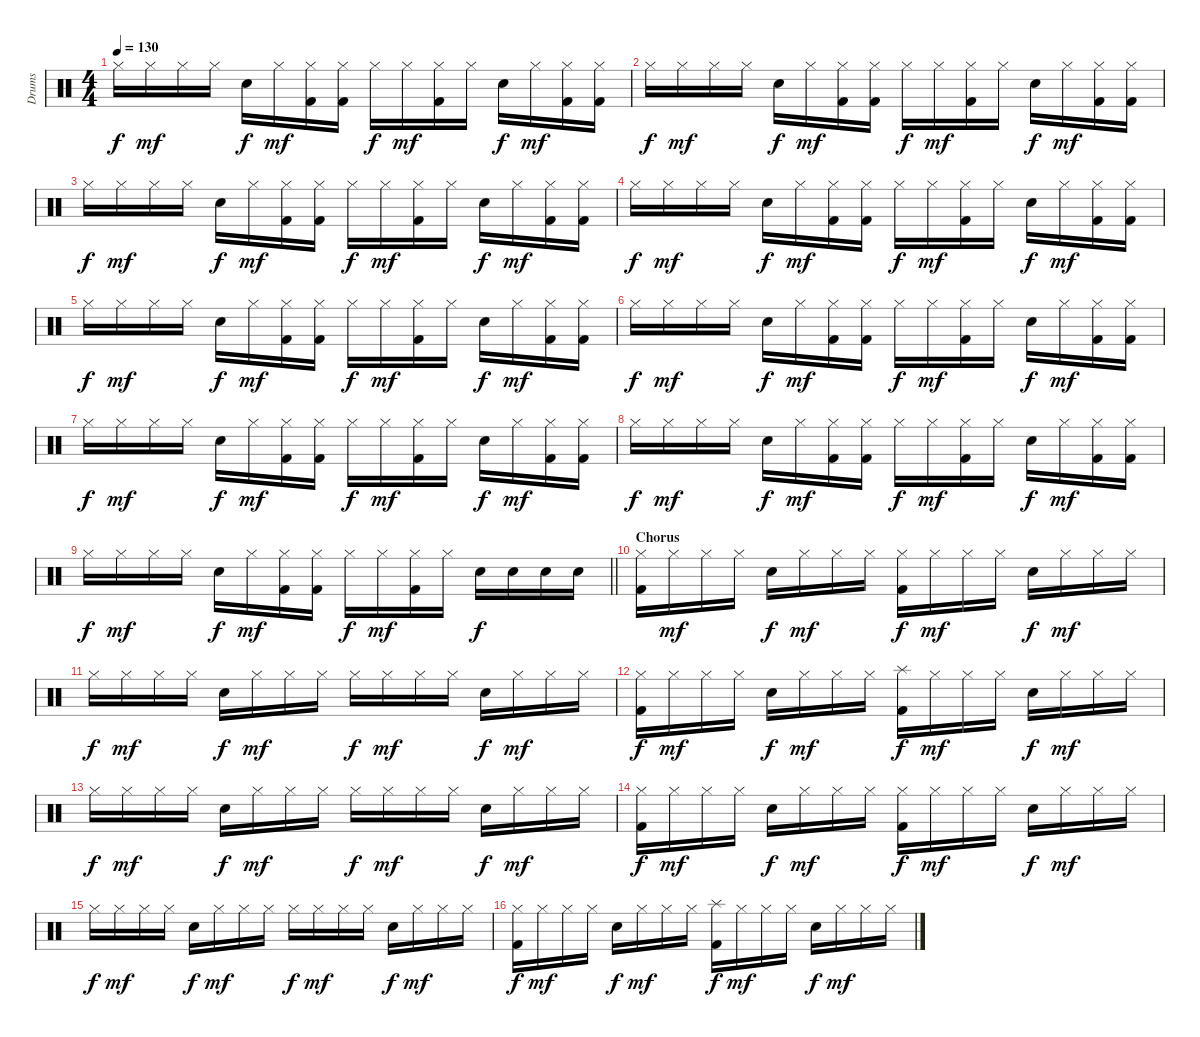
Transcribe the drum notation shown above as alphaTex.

\track ("Drums" "Drums") {instrument percussion}
\staff {score}
\articulation defaults
\ts (4 4)
\tempo 130
\clef neutral
\ks c "Hi-Hat (closed)".16{dy f} "Hi-Hat (closed)".16{dy mf} "Hi-Hat (closed)".16 "Hi-Hat (closed)".16 "Snare (hit) 2".16{dy f} "Hi-Hat (closed)".16{dy mf}
("Hi-Hat (closed)" "Kick (hit) 2").16 ("Hi-Hat (closed)" "Kick (hit) 2").16 "Hi-Hat (closed)".16{dy f} "Hi-Hat (closed)".16{dy mf} ("Hi-Hat (closed)" "Kick (hit) 2").16 "Hi-Hat (closed)".16 "Snare (hit) 2".16{dy f} "Hi-Hat (closed)".16{dy mf} ("Hi-Hat (closed)" "Kick (hit) 2").16 ("Hi-Hat (closed)" "Kick (hit) 2").16 |
"Hi-Hat (closed)".16{dy f} "Hi-Hat (closed)".16{dy mf} "Hi-Hat (closed)".16 "Hi-Hat (closed)".16 "Snare (hit) 2".16{dy f} "Hi-Hat (closed)".16{dy mf} ("Hi-Hat (closed)" "Kick (hit) 2").16 ("Hi-Hat (closed)" "Kick (hit) 2").16 "Hi-Hat (closed)".16{dy f} "Hi-Hat (closed)".16{dy mf} ("Hi-Hat (closed)" "Kick (hit) 2").16 "Hi-Hat (closed)".16 "Snare (hit) 2".16{dy f} "Hi-Hat (closed)".16{dy mf} ("Hi-Hat (closed)" "Kick (hit) 2").16 ("Hi-Hat (closed)" "Kick (hit) 2").16 |
"Hi-Hat (closed)".16{dy f} "Hi-Hat (closed)".16{dy mf} "Hi-Hat (closed)".16 "Hi-Hat (closed)".16 "Snare (hit) 2".16{dy f} "Hi-Hat (closed)".16{dy mf} ("Hi-Hat (closed)" "Kick (hit) 2").16 ("Hi-Hat (closed)" "Kick (hit) 2").16 "Hi-Hat (closed)".16{dy f} "Hi-Hat (closed)".16{dy mf} ("Hi-Hat (closed)" "Kick (hit) 2").16 "Hi-Hat (closed)".16 "Snare (hit) 2".16{dy f} "Hi-Hat (closed)".16{dy mf} ("Hi-Hat (closed)" "Kick (hit) 2").16 ("Hi-Hat (closed)" "Kick (hit) 2").16 |
"Hi-Hat (closed)".16{dy f} "Hi-Hat (closed)".16{dy mf} "Hi-Hat (closed)".16 "Hi-Hat (closed)".16 "Snare (hit) 2".16{dy f} "Hi-Hat (closed)".16{dy mf} ("Hi-Hat (closed)" "Kick (hit) 2").16 ("Hi-Hat (closed)" "Kick (hit) 2").16 "Hi-Hat (closed)".16{dy f} "Hi-Hat (closed)".16{dy mf} ("Hi-Hat (closed)" "Kick (hit) 2").16 "Hi-Hat (closed)".16 "Snare (hit) 2".16{dy f} "Hi-Hat (closed)".16{dy mf} ("Hi-Hat (closed)" "Kick (hit) 2").16 ("Hi-Hat (closed)" "Kick (hit) 2").16 |
"Hi-Hat (closed)".16{dy f} "Hi-Hat (closed)".16{dy mf} "Hi-Hat (closed)".16 "Hi-Hat (closed)".16 "Snare (hit) 2".16{dy f} "Hi-Hat (closed)".16{dy mf} ("Hi-Hat (closed)" "Kick (hit) 2").16 ("Hi-Hat (closed)" "Kick (hit) 2").16 "Hi-Hat (closed)".16{dy f} "Hi-Hat (closed)".16{dy mf} ("Hi-Hat (closed)" "Kick (hit) 2").16 "Hi-Hat (closed)".16 "Snare (hit) 2".16{dy f} "Hi-Hat (closed)".16{dy mf} ("Hi-Hat (closed)" "Kick (hit) 2").16 ("Hi-Hat (closed)" "Kick (hit) 2").16 |
"Hi-Hat (closed)".16{dy f} "Hi-Hat (closed)".16{dy mf} "Hi-Hat (closed)".16 "Hi-Hat (closed)".16 "Snare (hit) 2".16{dy f} "Hi-Hat (closed)".16{dy mf} ("Hi-Hat (closed)" "Kick (hit) 2").16 ("Hi-Hat (closed)" "Kick (hit) 2").16 "Hi-Hat (closed)".16{dy f} "Hi-Hat (closed)".16{dy mf} ("Hi-Hat (closed)" "Kick (hit) 2").16 "Hi-Hat (closed)".16 "Snare (hit) 2".16{dy f} "Hi-Hat (closed)".16{dy mf} ("Hi-Hat (closed)" "Kick (hit) 2").16 ("Hi-Hat (closed)" "Kick (hit) 2").16 |
"Hi-Hat (closed)".16{dy f} "Hi-Hat (closed)".16{dy mf} "Hi-Hat (closed)".16 "Hi-Hat (closed)".16 "Snare (hit) 2".16{dy f} "Hi-Hat (closed)".16{dy mf} ("Hi-Hat (closed)" "Kick (hit) 2").16 ("Hi-Hat (closed)" "Kick (hit) 2").16 "Hi-Hat (closed)".16{dy f} "Hi-Hat (closed)".16{dy mf} ("Hi-Hat (closed)" "Kick (hit) 2").16 "Hi-Hat (closed)".16 "Snare (hit) 2".16{dy f} "Hi-Hat (closed)".16{dy mf} ("Hi-Hat (closed)" "Kick (hit) 2").16 ("Hi-Hat (closed)" "Kick (hit) 2").16 |
"Hi-Hat (closed)".16{dy f} "Hi-Hat (closed)".16{dy mf} "Hi-Hat (closed)".16 "Hi-Hat (closed)".16 "Snare (hit) 2".16{dy f} "Hi-Hat (closed)".16{dy mf} ("Hi-Hat (closed)" "Kick (hit) 2").16 ("Hi-Hat (closed)" "Kick (hit) 2").16 "Hi-Hat (closed)".16{dy f} "Hi-Hat (closed)".16{dy mf} ("Hi-Hat (closed)" "Kick (hit) 2").16 "Hi-Hat (closed)".16 "Snare (hit) 2".16{dy f} "Hi-Hat (closed)".16{dy mf} ("Hi-Hat (closed)" "Kick (hit) 2").16 ("Hi-Hat (closed)" "Kick (hit) 2").16 |
\barLineRight lightlight "Hi-Hat (closed)".16{dy f} "Hi-Hat (closed)".16{dy mf} "Hi-Hat (closed)".16 "Hi-Hat (closed)".16 "Snare (hit) 2".16{dy f} "Hi-Hat (closed)".16{dy mf}
("Hi-Hat (closed)" "Kick (hit) 2").16 ("Hi-Hat (closed)" "Kick (hit) 2").16 "Hi-Hat (closed)".16{dy f} "Hi-Hat (closed)".16{dy mf} ("Hi-Hat (closed)" "Kick (hit) 2").16 "Hi-Hat (closed)".16 "Snare (hit) 2".16{dy f} "Snare (hit) 2".16 "Snare (hit) 2".16 "Snare (hit) 2".16 |
\section ("" "Chorus")
("Hi-Hat (closed)" "Kick (hit) 2").16 "Hi-Hat (closed)".16{dy mf} "Hi-Hat (closed)".16 "Hi-Hat (closed)".16 "Snare (hit) 2".16{dy f} "Hi-Hat (closed)".16{dy mf} "Hi-Hat (closed)".16 "Hi-Hat (closed)".16 ("Hi-Hat (closed)" "Kick (hit) 2").16{dy f} "Hi-Hat (closed)".16{dy mf} "Hi-Hat (closed)".16 "Hi-Hat (closed)".16 "Snare (hit) 2".16{dy f} "Hi-Hat (closed)".16{dy mf} "Hi-Hat (closed)".16 "Hi-Hat (closed)".16 |
"Hi-Hat (closed)".16{dy f} "Hi-Hat (closed)".16{dy mf} "Hi-Hat (closed)".16 "Hi-Hat (closed)".16 "Snare (hit) 2".16{dy f} "Hi-Hat (closed)".16{dy mf} "Hi-Hat (closed)".16 "Hi-Hat (closed)".16 "Hi-Hat (closed)".16{dy f} "Hi-Hat (closed)".16{dy mf} "Hi-Hat (closed)".16 "Hi-Hat (closed)".16 "Snare (hit) 2".16{dy f} "Hi-Hat (closed)".16{dy mf} "Hi-Hat (closed)".16 "Hi-Hat (closed)".16 |
("Hi-Hat (closed)" "Kick (hit) 2").16{dy f} "Hi-Hat (closed)".16{dy mf} "Hi-Hat (closed)".16 "Hi-Hat (closed)".16 "Snare (hit) 2".16{dy f} "Hi-Hat (closed)".16{dy mf} "Hi-Hat (closed)".16 "Hi-Hat (closed)".16 ("Splash (hit)" "Kick (hit) 2").16{dy f} "Hi-Hat (closed)".16{dy mf} "Hi-Hat (closed)".16 "Hi-Hat (closed)".16 "Snare (hit) 2".16{dy f} "Hi-Hat (closed)".16{dy mf} "Hi-Hat (closed)".16 "Hi-Hat (closed)".16 |
"Hi-Hat (closed)".16{dy f} "Hi-Hat (closed)".16{dy mf} "Hi-Hat (closed)".16 "Hi-Hat (closed)".16 "Snare (hit) 2".16{dy f} "Hi-Hat (closed)".16{dy mf} "Hi-Hat (closed)".16 "Hi-Hat (closed)".16 "Hi-Hat (closed)".16{dy f} "Hi-Hat (closed)".16{dy mf} "Hi-Hat (closed)".16 "Hi-Hat (closed)".16 "Snare (hit) 2".16{dy f} "Hi-Hat (closed)".16{dy mf} "Hi-Hat (closed)".16 "Hi-Hat (closed)".16 |
("Hi-Hat (closed)" "Kick (hit) 2").16{dy f} "Hi-Hat (closed)".16{dy mf} "Hi-Hat (closed)".16 "Hi-Hat (closed)".16 "Snare (hit) 2".16{dy f} "Hi-Hat (closed)".16{dy mf} "Hi-Hat (closed)".16 "Hi-Hat (closed)".16 ("Hi-Hat (closed)" "Kick (hit) 2").16{dy f} "Hi-Hat (closed)".16{dy mf} "Hi-Hat (closed)".16 "Hi-Hat (closed)".16 "Snare (hit) 2".16{dy f} "Hi-Hat (closed)".16{dy mf} "Hi-Hat (closed)".16 "Hi-Hat (closed)".16 |
"Hi-Hat (closed)".16{dy f} "Hi-Hat (closed)".16{dy mf} "Hi-Hat (closed)".16 "Hi-Hat (closed)".16 "Snare (hit) 2".16{dy f} "Hi-Hat (closed)".16{dy mf} "Hi-Hat (closed)".16 "Hi-Hat (closed)".16 "Hi-Hat (closed)".16{dy f} "Hi-Hat (closed)".16{dy mf} "Hi-Hat (closed)".16 "Hi-Hat (closed)".16 "Snare (hit) 2".16{dy f} "Hi-Hat (closed)".16{dy mf} "Hi-Hat (closed)".16 "Hi-Hat (closed)".16 |
("Hi-Hat (closed)" "Kick (hit) 2").16{dy f} "Hi-Hat (closed)".16{dy mf} "Hi-Hat (closed)".16 "Hi-Hat (closed)".16 "Snare (hit) 2".16{dy f} "Hi-Hat (closed)".16{dy mf} "Hi-Hat (closed)".16 "Hi-Hat (closed)".16 ("Splash (hit)" "Kick (hit) 2").16{dy f} "Hi-Hat (closed)".16{dy mf} "Hi-Hat (closed)".16 "Hi-Hat (closed)".16 "Snare (hit) 2".16{dy f} "Hi-Hat (closed)".16{dy mf} "Hi-Hat (closed)".16 "Hi-Hat (closed)".16
